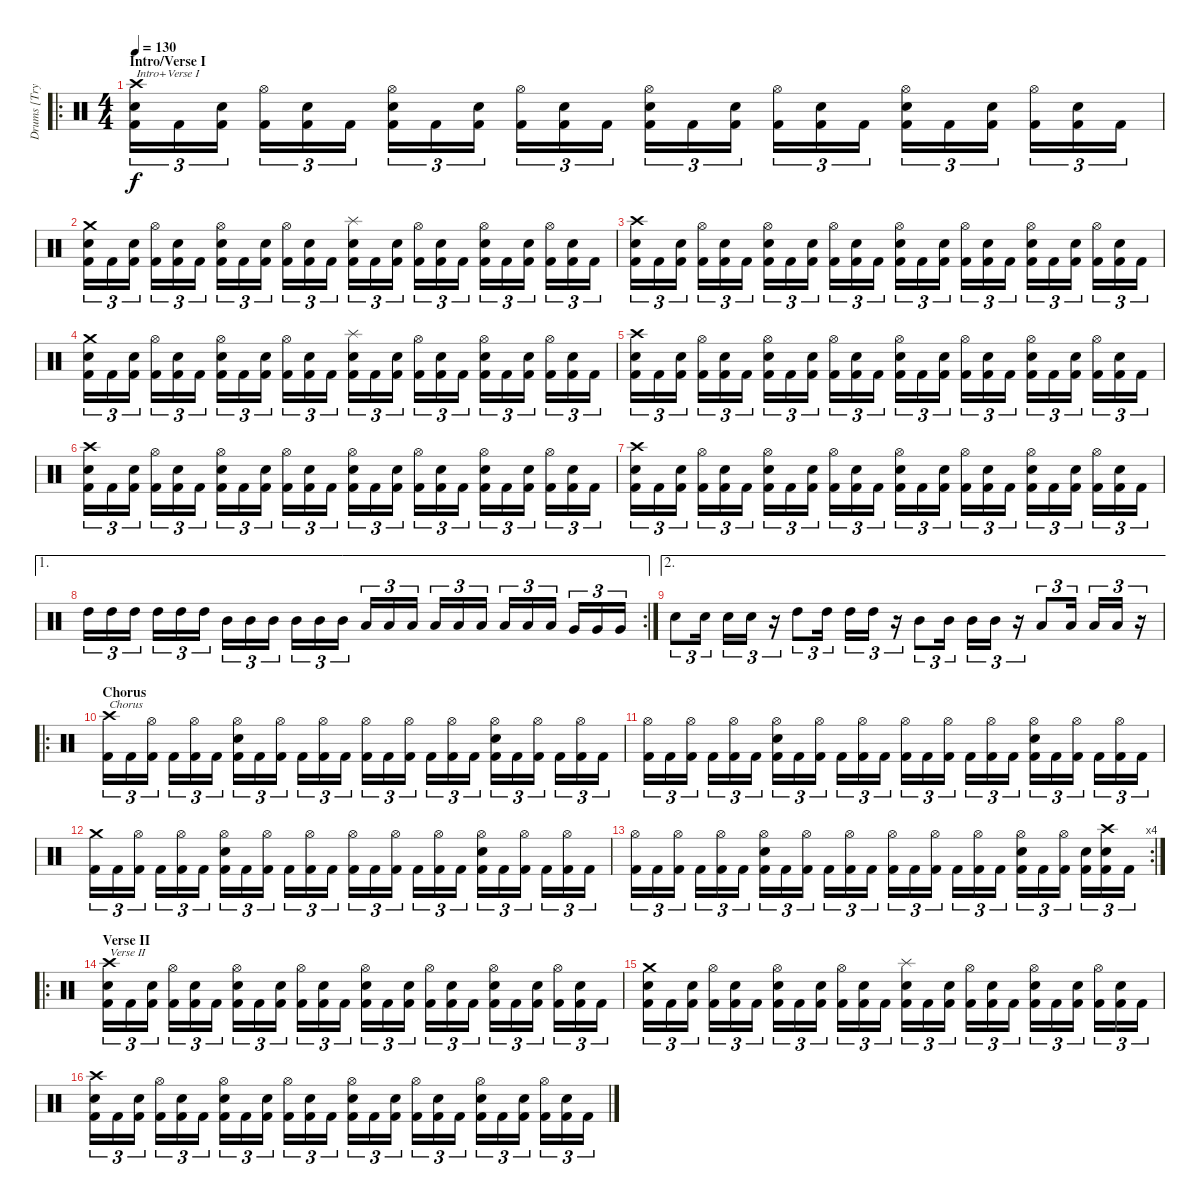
\track ("Drums [Trym]" "Drums [Try") {instrument percussion}
\staff {score}
\articulation defaults
\ro
\ts (4 4)
\section ("" "Intro/Verse I")
\tempo 130
\clef neutral
\ks c
("Crash high (hit)" "Electric Snare (hit)" "Kick (hit) 2").16{tu (3 2) txt "Intro+Verse I" dy f} "Kick (hit) 2".16{tu (3 2)} ("Electric Snare (hit)" "Kick (hit) 2").16{tu (3 2)} ("Hi-Hat (open)" "Kick (hit) 2").16{tu (3 2)} ("Electric Snare (hit)" "Kick (hit) 2").16{tu (3 2)} "Kick (hit) 2".16{tu (3 2)} ("Hi-Hat (open)" "Electric Snare (hit)" "Kick (hit) 2").16{tu (3 2)} "Kick (hit) 2".16{tu (3 2)} ("Electric Snare (hit)" "Kick (hit) 2").16{tu (3 2)} ("Hi-Hat (open)" "Kick (hit) 2").16{tu (3 2)} ("Electric Snare (hit)" "Kick (hit) 2").16{tu (3 2)} "Kick (hit) 2".16{tu (3 2)} ("Hi-Hat (open)" "Electric Snare (hit)" "Kick (hit) 2").16{tu (3 2)} "Kick (hit) 2".16{tu (3 2)} ("Electric Snare (hit)" "Kick (hit) 2").16{tu (3 2)} ("Hi-Hat (open)" "Kick (hit) 2").16{tu (3 2)} ("Electric Snare (hit)" "Kick (hit) 2").16{tu (3 2)} "Kick (hit) 2".16{tu (3 2)} ("Hi-Hat (open)" "Electric Snare (hit)" "Kick (hit) 2").16{tu (3 2)} "Kick (hit) 2".16{tu (3 2)} ("Electric Snare (hit)" "Kick (hit) 2").16{tu (3 2)} ("Hi-Hat (open)" "Kick (hit) 2").16{tu (3 2)} ("Electric Snare (hit)" "Kick (hit) 2").16{tu (3 2)} "Kick (hit) 2".16{tu (3 2)} |
("Crash medium (hit)" "Electric Snare (hit)" "Kick (hit) 2").16{tu (3 2)} "Kick (hit) 2".16{tu (3 2)} ("Electric Snare (hit)" "Kick (hit) 2").16{tu (3 2)} ("Hi-Hat (open)" "Kick (hit) 2").16{tu (3 2)} ("Electric Snare (hit)" "Kick (hit) 2").16{tu (3 2)} "Kick (hit) 2".16{tu (3 2)} ("Hi-Hat (open)" "Electric Snare (hit)" "Kick (hit) 2").16{tu (3 2)} "Kick (hit) 2".16{tu (3 2)} ("Electric Snare (hit)" "Kick (hit) 2").16{tu (3 2)} ("Hi-Hat (open)" "Kick (hit) 2").16{tu (3 2)} ("Electric Snare (hit)" "Kick (hit) 2").16{tu (3 2)} "Kick (hit) 2".16{tu (3 2)} ("Splash (hit)" "Electric Snare (hit)" "Kick (hit) 2").16{tu (3 2)} "Kick (hit) 2".16{tu (3 2)} ("Electric Snare (hit)" "Kick (hit) 2").16{tu (3 2)} ("Hi-Hat (open)" "Kick (hit) 2").16{tu (3 2)} ("Electric Snare (hit)" "Kick (hit) 2").16{tu (3 2)} "Kick (hit) 2".16{tu (3 2)} ("Hi-Hat (open)" "Electric Snare (hit)" "Kick (hit) 2").16{tu (3 2)} "Kick (hit) 2".16{tu (3 2)} ("Electric Snare (hit)" "Kick (hit) 2").16{tu (3 2)} ("Hi-Hat (open)" "Kick (hit) 2").16{tu (3 2)} ("Electric Snare (hit)" "Kick (hit) 2").16{tu (3 2)} "Kick (hit) 2".16{tu (3 2)} |
("Crash high (hit)" "Electric Snare (hit)" "Kick (hit) 2").16{tu (3 2)} "Kick (hit) 2".16{tu (3 2)} ("Electric Snare (hit)" "Kick (hit) 2").16{tu (3 2)} ("Hi-Hat (open)" "Kick (hit) 2").16{tu (3 2)} ("Electric Snare (hit)" "Kick (hit) 2").16{tu (3 2)} "Kick (hit) 2".16{tu (3 2)} ("Hi-Hat (open)" "Electric Snare (hit)" "Kick (hit) 2").16{tu (3 2)} "Kick (hit) 2".16{tu (3 2)} ("Electric Snare (hit)" "Kick (hit) 2").16{tu (3 2)} ("Hi-Hat (open)" "Kick (hit) 2").16{tu (3 2)} ("Electric Snare (hit)" "Kick (hit) 2").16{tu (3 2)} "Kick (hit) 2".16{tu (3 2)} ("Hi-Hat (open)" "Electric Snare (hit)" "Kick (hit) 2").16{tu (3 2)} "Kick (hit) 2".16{tu (3 2)} ("Electric Snare (hit)" "Kick (hit) 2").16{tu (3 2)} ("Hi-Hat (open)" "Kick (hit) 2").16{tu (3 2)} ("Electric Snare (hit)" "Kick (hit) 2").16{tu (3 2)} "Kick (hit) 2".16{tu (3 2)} ("Hi-Hat (open)" "Electric Snare (hit)" "Kick (hit) 2").16{tu (3 2)} "Kick (hit) 2".16{tu (3 2)} ("Electric Snare (hit)" "Kick (hit) 2").16{tu (3 2)} ("Hi-Hat (open)" "Kick (hit) 2").16{tu (3 2)} ("Electric Snare (hit)" "Kick (hit) 2").16{tu (3 2)} "Kick (hit) 2".16{tu (3 2)} |
("Crash medium (hit)" "Electric Snare (hit)" "Kick (hit) 2").16{tu (3 2)} "Kick (hit) 2".16{tu (3 2)} ("Electric Snare (hit)" "Kick (hit) 2").16{tu (3 2)} ("Hi-Hat (open)" "Kick (hit) 2").16{tu (3 2)} ("Electric Snare (hit)" "Kick (hit) 2").16{tu (3 2)} "Kick (hit) 2".16{tu (3 2)} ("Hi-Hat (open)" "Electric Snare (hit)" "Kick (hit) 2").16{tu (3 2)} "Kick (hit) 2".16{tu (3 2)} ("Electric Snare (hit)" "Kick (hit) 2").16{tu (3 2)} ("Hi-Hat (open)" "Kick (hit) 2").16{tu (3 2)} ("Electric Snare (hit)" "Kick (hit) 2").16{tu (3 2)} "Kick (hit) 2".16{tu (3 2)} ("Splash (hit)" "Electric Snare (hit)" "Kick (hit) 2").16{tu (3 2)} "Kick (hit) 2".16{tu (3 2)} ("Electric Snare (hit)" "Kick (hit) 2").16{tu (3 2)} ("Hi-Hat (open)" "Kick (hit) 2").16{tu (3 2)} ("Electric Snare (hit)" "Kick (hit) 2").16{tu (3 2)} "Kick (hit) 2".16{tu (3 2)} ("Hi-Hat (open)" "Electric Snare (hit)" "Kick (hit) 2").16{tu (3 2)} "Kick (hit) 2".16{tu (3 2)} ("Electric Snare (hit)" "Kick (hit) 2").16{tu (3 2)} ("Hi-Hat (open)" "Kick (hit) 2").16{tu (3 2)} ("Electric Snare (hit)" "Kick (hit) 2").16{tu (3 2)} "Kick (hit) 2".16{tu (3 2)} |
("Crash high (hit)" "Electric Snare (hit)" "Kick (hit) 2").16{tu (3 2)} "Kick (hit) 2".16{tu (3 2)} ("Electric Snare (hit)" "Kick (hit) 2").16{tu (3 2)} ("Hi-Hat (open)" "Kick (hit) 2").16{tu (3 2)} ("Electric Snare (hit)" "Kick (hit) 2").16{tu (3 2)} "Kick (hit) 2".16{tu (3 2)} ("Hi-Hat (open)" "Electric Snare (hit)" "Kick (hit) 2").16{tu (3 2)} "Kick (hit) 2".16{tu (3 2)} ("Electric Snare (hit)" "Kick (hit) 2").16{tu (3 2)} ("Hi-Hat (open)" "Kick (hit) 2").16{tu (3 2)} ("Electric Snare (hit)" "Kick (hit) 2").16{tu (3 2)} "Kick (hit) 2".16{tu (3 2)} ("Hi-Hat (open)" "Electric Snare (hit)" "Kick (hit) 2").16{tu (3 2)} "Kick (hit) 2".16{tu (3 2)} ("Electric Snare (hit)" "Kick (hit) 2").16{tu (3 2)} ("Hi-Hat (open)" "Kick (hit) 2").16{tu (3 2)} ("Electric Snare (hit)" "Kick (hit) 2").16{tu (3 2)} "Kick (hit) 2".16{tu (3 2)} ("Hi-Hat (open)" "Electric Snare (hit)" "Kick (hit) 2").16{tu (3 2)} "Kick (hit) 2".16{tu (3 2)} ("Electric Snare (hit)" "Kick (hit) 2").16{tu (3 2)} ("Hi-Hat (open)" "Kick (hit) 2").16{tu (3 2)} ("Electric Snare (hit)" "Kick (hit) 2").16{tu (3 2)} "Kick (hit) 2".16{tu (3 2)} |
("Crash high (hit)" "Electric Snare (hit)" "Kick (hit) 2").16{tu (3 2)} "Kick (hit) 2".16{tu (3 2)} ("Electric Snare (hit)" "Kick (hit) 2").16{tu (3 2)} ("Hi-Hat (open)" "Kick (hit) 2").16{tu (3 2)} ("Electric Snare (hit)" "Kick (hit) 2").16{tu (3 2)} "Kick (hit) 2".16{tu (3 2)} ("Hi-Hat (open)" "Electric Snare (hit)" "Kick (hit) 2").16{tu (3 2)} "Kick (hit) 2".16{tu (3 2)} ("Electric Snare (hit)" "Kick (hit) 2").16{tu (3 2)} ("Hi-Hat (open)" "Kick (hit) 2").16{tu (3 2)} ("Electric Snare (hit)" "Kick (hit) 2").16{tu (3 2)} "Kick (hit) 2".16{tu (3 2)} ("Hi-Hat (open)" "Electric Snare (hit)" "Kick (hit) 2").16{tu (3 2)} "Kick (hit) 2".16{tu (3 2)} ("Electric Snare (hit)" "Kick (hit) 2").16{tu (3 2)} ("Hi-Hat (open)" "Kick (hit) 2").16{tu (3 2)} ("Electric Snare (hit)" "Kick (hit) 2").16{tu (3 2)} "Kick (hit) 2".16{tu (3 2)} ("Hi-Hat (open)" "Electric Snare (hit)" "Kick (hit) 2").16{tu (3 2)} "Kick (hit) 2".16{tu (3 2)} ("Electric Snare (hit)" "Kick (hit) 2").16{tu (3 2)} ("Hi-Hat (open)" "Kick (hit) 2").16{tu (3 2)} ("Electric Snare (hit)" "Kick (hit) 2").16{tu (3 2)} "Kick (hit) 2".16{tu (3 2)} |
("Crash high (hit)" "Electric Snare (hit)" "Kick (hit) 2").16{tu (3 2)} "Kick (hit) 2".16{tu (3 2)} ("Electric Snare (hit)" "Kick (hit) 2").16{tu (3 2)} ("Hi-Hat (open)" "Kick (hit) 2").16{tu (3 2)} ("Electric Snare (hit)" "Kick (hit) 2").16{tu (3 2)} "Kick (hit) 2".16{tu (3 2)} ("Hi-Hat (open)" "Electric Snare (hit)" "Kick (hit) 2").16{tu (3 2)} "Kick (hit) 2".16{tu (3 2)} ("Electric Snare (hit)" "Kick (hit) 2").16{tu (3 2)} ("Hi-Hat (open)" "Kick (hit) 2").16{tu (3 2)} ("Electric Snare (hit)" "Kick (hit) 2").16{tu (3 2)} "Kick (hit) 2".16{tu (3 2)} ("Hi-Hat (open)" "Electric Snare (hit)" "Kick (hit) 2").16{tu (3 2)} "Kick (hit) 2".16{tu (3 2)} ("Electric Snare (hit)" "Kick (hit) 2").16{tu (3 2)} ("Hi-Hat (open)" "Kick (hit) 2").16{tu (3 2)} ("Electric Snare (hit)" "Kick (hit) 2").16{tu (3 2)} "Kick (hit) 2".16{tu (3 2)} ("Hi-Hat (open)" "Electric Snare (hit)" "Kick (hit) 2").16{tu (3 2)} "Kick (hit) 2".16{tu (3 2)} ("Electric Snare (hit)" "Kick (hit) 2").16{tu (3 2)} ("Hi-Hat (open)" "Kick (hit) 2").16{tu (3 2)} ("Electric Snare (hit)" "Kick (hit) 2").16{tu (3 2)} "Kick (hit) 2".16{tu (3 2)} |
\ae 1
\rc 2 "High Tom (hit)".16{tu (3 2)} "High Tom (hit)".16{tu (3 2)} "High Tom (hit)".16{tu (3 2)} "High Tom (hit)".16{tu (3 2)} "High Tom (hit)".16{tu (3 2)} "High Tom (hit)".16{tu (3 2)} "Mid Tom (hit)".16{tu (3 2)} "Mid Tom (hit)".16{tu (3 2)} "Mid Tom (hit)".16{tu (3 2)} "Mid Tom (hit)".16{tu (3 2)} "Mid Tom (hit)".16{tu (3 2)} "Mid Tom (hit)".16{tu (3 2)} "Low Tom (hit)".16{tu (3 2)} "Low Tom (hit)".16{tu (3 2)} "Low Tom (hit)".16{tu (3 2)} "Low Tom (hit)".16{tu (3 2)} "Low Tom (hit)".16{tu (3 2)} "Low Tom (hit)".16{tu (3 2)} "Low Tom (hit)".16{tu (3 2)} "Low Tom (hit)".16{tu (3 2)} "Low Tom (hit)".16{tu (3 2)} "Very Low Tom (hit)".16{tu (3 2)} "Very Low Tom (hit)".16{tu (3 2)} "Very Low Tom (hit)".16{tu (3 2)}
|
\ae 2 "Electric Snare (hit)".8{tu (3 2)} "Electric Snare (hit)".16{tu (3 2)} "Electric Snare (hit)".16{tu (3 2)} "Electric Snare (hit)".16{tu (3 2)}
r.16{tu (3 2)} "High Tom (hit)".8{tu (3 2)} "High Tom (hit)".16{tu (3 2)} "High Tom (hit)".16{tu (3 2)} "High Tom (hit)".16{tu (3 2)} r.16{tu (3 2)} "Mid Tom (hit)".8{tu (3 2)} "Mid Tom (hit)".16{tu (3 2)} "Mid Tom (hit)".16{tu (3 2)} "Mid Tom (hit)".16{tu (3 2)} r.16{tu (3 2)} "Low Tom (hit)".8{tu (3 2)} "Low Tom (hit)".16{tu (3 2)} "Low Tom (hit)".16{tu (3 2)} "Low Tom (hit)".16{tu (3 2)} r.16{tu (3 2)} |
\ro
\section ("" "Chorus")
("Crash high (hit)" "Kick (hit) 2").16{tu (3 2) txt "Chorus"} "Kick (hit) 2".16{tu (3 2)} ("Hi-Hat (open)" "Kick (hit) 2").16{tu (3 2)} "Kick (hit) 2".16{tu (3 2)} ("Hi-Hat (open)" "Kick (hit) 2").16{tu (3 2)} "Kick (hit) 2".16{tu (3 2)} ("Hi-Hat (open)" "Electric Snare (hit)" "Kick (hit) 2").16{tu (3 2)} "Kick (hit) 2".16{tu (3 2)} ("Hi-Hat (open)" "Kick (hit) 2").16{tu (3 2)} "Kick (hit) 2".16{tu (3 2)} ("Hi-Hat (open)" "Kick (hit) 2").16{tu (3 2)} "Kick (hit) 2".16{tu (3 2)} ("Hi-Hat (open)" "Kick (hit) 2").16{tu (3 2)} "Kick (hit) 2".16{tu (3 2)} ("Hi-Hat (open)" "Kick (hit) 2").16{tu (3 2)} "Kick (hit) 2".16{tu (3 2)} ("Hi-Hat (open)" "Kick (hit) 2").16{tu (3 2)} "Kick (hit) 2".16{tu (3 2)} ("Hi-Hat (open)" "Electric Snare (hit)" "Kick (hit) 2").16{tu (3 2)} "Kick (hit) 2".16{tu (3 2)} ("Hi-Hat (open)" "Kick (hit) 2").16{tu (3 2)} "Kick (hit) 2".16{tu (3 2)} ("Hi-Hat (open)" "Kick (hit) 2").16{tu (3 2)} "Kick (hit) 2".16{tu (3 2)} |
("Hi-Hat (open)" "Kick (hit) 2").16{tu (3 2)} "Kick (hit) 2".16{tu (3 2)} ("Hi-Hat (open)" "Kick (hit) 2").16{tu (3 2)} "Kick (hit) 2".16{tu (3 2)} ("Hi-Hat (open)" "Kick (hit) 2").16{tu (3 2)} "Kick (hit) 2".16{tu (3 2)} ("Hi-Hat (open)" "Electric Snare (hit)" "Kick (hit) 2").16{tu (3 2)} "Kick (hit) 2".16{tu (3 2)} ("Hi-Hat (open)" "Kick (hit) 2").16{tu (3 2)} "Kick (hit) 2".16{tu (3 2)} ("Hi-Hat (open)" "Kick (hit) 2").16{tu (3 2)} "Kick (hit) 2".16{tu (3 2)} ("Hi-Hat (open)" "Kick (hit) 2").16{tu (3 2)} "Kick (hit) 2".16{tu (3 2)} ("Hi-Hat (open)" "Kick (hit) 2").16{tu (3 2)} "Kick (hit) 2".16{tu (3 2)} ("Hi-Hat (open)" "Kick (hit) 2").16{tu (3 2)} "Kick (hit) 2".16{tu (3 2)} ("Hi-Hat (open)" "Electric Snare (hit)" "Kick (hit) 2").16{tu (3 2)} "Kick (hit) 2".16{tu (3 2)} ("Hi-Hat (open)" "Kick (hit) 2").16{tu (3 2)} "Kick (hit) 2".16{tu (3 2)} ("Hi-Hat (open)" "Kick (hit) 2").16{tu (3 2)} "Kick (hit) 2".16{tu (3 2)} |
("Crash medium (hit)" "Kick (hit) 2").16{tu (3 2)} "Kick (hit) 2".16{tu (3 2)} ("Hi-Hat (open)" "Kick (hit) 2").16{tu (3 2)} "Kick (hit) 2".16{tu (3 2)} ("Hi-Hat (open)" "Kick (hit) 2").16{tu (3 2)} "Kick (hit) 2".16{tu (3 2)} ("Hi-Hat (open)" "Electric Snare (hit)" "Kick (hit) 2").16{tu (3 2)} "Kick (hit) 2".16{tu (3 2)} ("Hi-Hat (open)" "Kick (hit) 2").16{tu (3 2)} "Kick (hit) 2".16{tu (3 2)} ("Hi-Hat (open)" "Kick (hit) 2").16{tu (3 2)} "Kick (hit) 2".16{tu (3 2)} ("Hi-Hat (open)" "Kick (hit) 2").16{tu (3 2)} "Kick (hit) 2".16{tu (3 2)} ("Hi-Hat (open)" "Kick (hit) 2").16{tu (3 2)} "Kick (hit) 2".16{tu (3 2)} ("Hi-Hat (open)" "Kick (hit) 2").16{tu (3 2)} "Kick (hit) 2".16{tu (3 2)} ("Hi-Hat (open)" "Electric Snare (hit)" "Kick (hit) 2").16{tu (3 2)} "Kick (hit) 2".16{tu (3 2)} ("Hi-Hat (open)" "Kick (hit) 2").16{tu (3 2)} "Kick (hit) 2".16{tu (3 2)} ("Hi-Hat (open)" "Kick (hit) 2").16{tu (3 2)} "Kick (hit) 2".16{tu (3 2)} |
\rc 4
("Hi-Hat (open)" "Kick (hit) 2").16{tu (3 2)} "Kick (hit) 2".16{tu (3 2)} ("Hi-Hat (open)" "Kick (hit) 2").16{tu (3 2)} "Kick (hit) 2".16{tu (3 2)} ("Hi-Hat (open)" "Kick (hit) 2").16{tu (3 2)} "Kick (hit) 2".16{tu (3 2)} ("Hi-Hat (open)" "Electric Snare (hit)" "Kick (hit) 2").16{tu (3 2)} "Kick (hit) 2".16{tu (3 2)} ("Hi-Hat (open)" "Kick (hit) 2").16{tu (3 2)} "Kick (hit) 2".16{tu (3 2)} ("Hi-Hat (open)" "Kick (hit) 2").16{tu (3 2)} "Kick (hit) 2".16{tu (3 2)} ("Hi-Hat (open)" "Kick (hit) 2").16{tu (3 2)} "Kick (hit) 2".16{tu (3 2)} ("Hi-Hat (open)" "Kick (hit) 2").16{tu (3 2)} "Kick (hit) 2".16{tu (3 2)} ("Hi-Hat (open)" "Kick (hit) 2").16{tu (3 2)} "Kick (hit) 2".16{tu (3 2)} ("Hi-Hat (open)" "Electric Snare (hit)" "Kick (hit) 2").16{tu (3 2)} "Kick (hit) 2".16{tu (3 2)} ("Hi-Hat (open)" "Kick (hit) 2").16{tu (3 2)} ("Electric Snare (hit)" "Kick (hit) 2").16{tu (3 2)} ("Crash high (hit)" "Electric Snare (hit)" "Kick (hit) 2").16{tu (3 2)} "Kick (hit) 2".16{tu (3 2)} |
\ro
\section ("" "Verse II")
("Crash high (hit)" "Electric Snare (hit)" "Kick (hit) 2").16{tu (3 2) txt "Verse II"} "Kick (hit) 2".16{tu (3 2)} ("Electric Snare (hit)" "Kick (hit) 2").16{tu (3 2)} ("Hi-Hat (open)" "Kick (hit) 2").16{tu (3 2)} ("Electric Snare (hit)" "Kick (hit) 2").16{tu (3 2)} "Kick (hit) 2".16{tu (3 2)} ("Hi-Hat (open)" "Electric Snare (hit)" "Kick (hit) 2").16{tu (3 2)} "Kick (hit) 2".16{tu (3 2)} ("Electric Snare (hit)" "Kick (hit) 2").16{tu (3 2)} ("Hi-Hat (open)" "Kick (hit) 2").16{tu (3 2)} ("Electric Snare (hit)" "Kick (hit) 2").16{tu (3 2)} "Kick (hit) 2".16{tu (3 2)} ("Hi-Hat (open)" "Electric Snare (hit)" "Kick (hit) 2").16{tu (3 2)} "Kick (hit) 2".16{tu (3 2)} ("Electric Snare (hit)" "Kick (hit) 2").16{tu (3 2)} ("Hi-Hat (open)" "Kick (hit) 2").16{tu (3 2)} ("Electric Snare (hit)" "Kick (hit) 2").16{tu (3 2)} "Kick (hit) 2".16{tu (3 2)} ("Hi-Hat (open)" "Electric Snare (hit)" "Kick (hit) 2").16{tu (3 2)} "Kick (hit) 2".16{tu (3 2)} ("Electric Snare (hit)" "Kick (hit) 2").16{tu (3 2)} ("Hi-Hat (open)" "Kick (hit) 2").16{tu (3 2)} ("Electric Snare (hit)" "Kick (hit) 2").16{tu (3 2)} "Kick (hit) 2".16{tu (3 2)} |
("Crash medium (hit)" "Electric Snare (hit)" "Kick (hit) 2").16{tu (3 2)} "Kick (hit) 2".16{tu (3 2)} ("Electric Snare (hit)" "Kick (hit) 2").16{tu (3 2)} ("Hi-Hat (open)" "Kick (hit) 2").16{tu (3 2)} ("Electric Snare (hit)" "Kick (hit) 2").16{tu (3 2)} "Kick (hit) 2".16{tu (3 2)} ("Hi-Hat (open)" "Electric Snare (hit)" "Kick (hit) 2").16{tu (3 2)} "Kick (hit) 2".16{tu (3 2)} ("Electric Snare (hit)" "Kick (hit) 2").16{tu (3 2)} ("Hi-Hat (open)" "Kick (hit) 2").16{tu (3 2)} ("Electric Snare (hit)" "Kick (hit) 2").16{tu (3 2)} "Kick (hit) 2".16{tu (3 2)} ("Splash (hit)" "Electric Snare (hit)" "Kick (hit) 2").16{tu (3 2)} "Kick (hit) 2".16{tu (3 2)} ("Electric Snare (hit)" "Kick (hit) 2").16{tu (3 2)} ("Hi-Hat (open)" "Kick (hit) 2").16{tu (3 2)} ("Electric Snare (hit)" "Kick (hit) 2").16{tu (3 2)} "Kick (hit) 2".16{tu (3 2)} ("Hi-Hat (open)" "Electric Snare (hit)" "Kick (hit) 2").16{tu (3 2)} "Kick (hit) 2".16{tu (3 2)} ("Electric Snare (hit)" "Kick (hit) 2").16{tu (3 2)} ("Hi-Hat (open)" "Kick (hit) 2").16{tu (3 2)} ("Electric Snare (hit)" "Kick (hit) 2").16{tu (3 2)} "Kick (hit) 2".16{tu (3 2)} |
("Crash high (hit)" "Electric Snare (hit)" "Kick (hit) 2").16{tu (3 2)} "Kick (hit) 2".16{tu (3 2)} ("Electric Snare (hit)" "Kick (hit) 2").16{tu (3 2)} ("Hi-Hat (open)" "Kick (hit) 2").16{tu (3 2)} ("Electric Snare (hit)" "Kick (hit) 2").16{tu (3 2)} "Kick (hit) 2".16{tu (3 2)} ("Hi-Hat (open)" "Electric Snare (hit)" "Kick (hit) 2").16{tu (3 2)} "Kick (hit) 2".16{tu (3 2)} ("Electric Snare (hit)" "Kick (hit) 2").16{tu (3 2)} ("Hi-Hat (open)" "Kick (hit) 2").16{tu (3 2)} ("Electric Snare (hit)" "Kick (hit) 2").16{tu (3 2)} "Kick (hit) 2".16{tu (3 2)} ("Hi-Hat (open)" "Electric Snare (hit)" "Kick (hit) 2").16{tu (3 2)} "Kick (hit) 2".16{tu (3 2)} ("Electric Snare (hit)" "Kick (hit) 2").16{tu (3 2)} ("Hi-Hat (open)" "Kick (hit) 2").16{tu (3 2)} ("Electric Snare (hit)" "Kick (hit) 2").16{tu (3 2)} "Kick (hit) 2".16{tu (3 2)} ("Hi-Hat (open)" "Electric Snare (hit)" "Kick (hit) 2").16{tu (3 2)} "Kick (hit) 2".16{tu (3 2)} ("Electric Snare (hit)" "Kick (hit) 2").16{tu (3 2)} ("Hi-Hat (open)" "Kick (hit) 2").16{tu (3 2)} ("Electric Snare (hit)" "Kick (hit) 2").16{tu (3 2)} "Kick (hit) 2".16{tu (3 2)}
